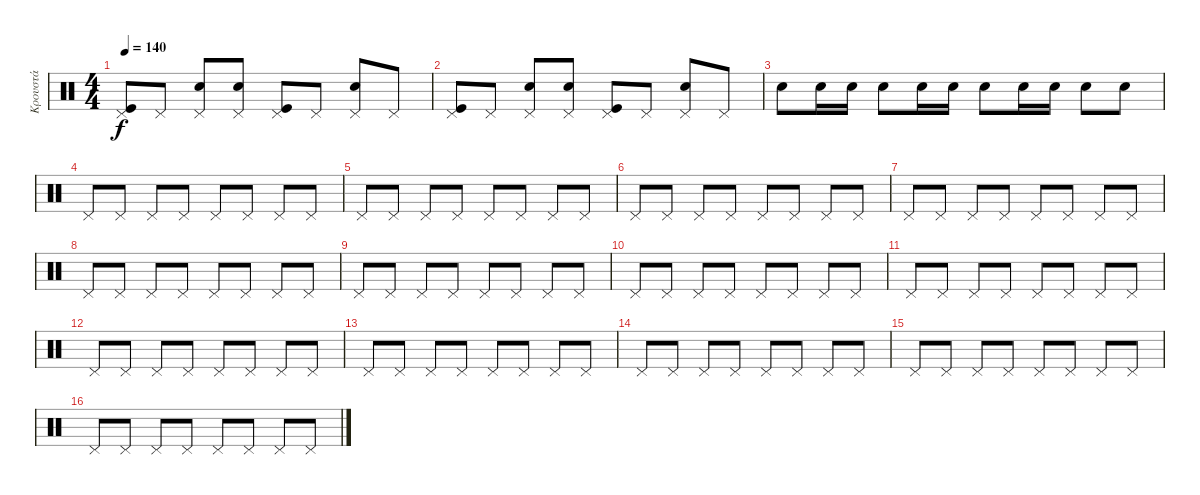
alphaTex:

\track ("Κρουστά" "Κρουστά") {instrument percussion}
\staff {score}
\articulation defaults
\ts (4 4)
\tempo 140
\clef neutral
\ks c
("Pedal Hi-Hat (hit)" "Kick (hit)").8{dy f} "Pedal Hi-Hat (hit)".8 ("Pedal Hi-Hat (hit)" "Snare (hit) 2").8 ("Pedal Hi-Hat (hit)" "Snare (hit) 2").8 ("Pedal Hi-Hat (hit)" "Kick (hit)").8 "Pedal Hi-Hat (hit)".8 ("Pedal Hi-Hat (hit)" "Snare (hit) 2").8 "Pedal Hi-Hat (hit)".8 |
("Pedal Hi-Hat (hit)" "Kick (hit)").8 "Pedal Hi-Hat (hit)".8 ("Pedal Hi-Hat (hit)" "Snare (hit) 2").8 ("Pedal Hi-Hat (hit)" "Snare (hit) 2").8 ("Pedal Hi-Hat (hit)" "Kick (hit)").8 "Pedal Hi-Hat (hit)".8 ("Pedal Hi-Hat (hit)" "Snare (hit) 2").8 "Pedal Hi-Hat (hit)".8 |
"Snare (hit) 2".8 "Snare (hit) 2".16 "Snare (hit) 2".16 "Snare (hit) 2".8 "Snare (hit) 2".16 "Snare (hit) 2".16 "Snare (hit) 2".8 "Snare (hit) 2".16 "Snare (hit) 2".16 "Snare (hit) 2".8 "Snare (hit) 2".8 |
"Pedal Hi-Hat (hit)".8 "Pedal Hi-Hat (hit)".8 "Pedal Hi-Hat (hit)".8 "Pedal Hi-Hat (hit)".8 "Pedal Hi-Hat (hit)".8 "Pedal Hi-Hat (hit)".8 "Pedal Hi-Hat (hit)".8 "Pedal Hi-Hat (hit)".8 |
"Pedal Hi-Hat (hit)".8 "Pedal Hi-Hat (hit)".8 "Pedal Hi-Hat (hit)".8 "Pedal Hi-Hat (hit)".8 "Pedal Hi-Hat (hit)".8 "Pedal Hi-Hat (hit)".8 "Pedal Hi-Hat (hit)".8 "Pedal Hi-Hat (hit)".8 |
"Pedal Hi-Hat (hit)".8 "Pedal Hi-Hat (hit)".8 "Pedal Hi-Hat (hit)".8 "Pedal Hi-Hat (hit)".8 "Pedal Hi-Hat (hit)".8 "Pedal Hi-Hat (hit)".8 "Pedal Hi-Hat (hit)".8 "Pedal Hi-Hat (hit)".8 |
"Pedal Hi-Hat (hit)".8 "Pedal Hi-Hat (hit)".8 "Pedal Hi-Hat (hit)".8 "Pedal Hi-Hat (hit)".8 "Pedal Hi-Hat (hit)".8 "Pedal Hi-Hat (hit)".8 "Pedal Hi-Hat (hit)".8 "Pedal Hi-Hat (hit)".8 |
"Pedal Hi-Hat (hit)".8 "Pedal Hi-Hat (hit)".8 "Pedal Hi-Hat (hit)".8 "Pedal Hi-Hat (hit)".8 "Pedal Hi-Hat (hit)".8 "Pedal Hi-Hat (hit)".8 "Pedal Hi-Hat (hit)".8 "Pedal Hi-Hat (hit)".8 |
"Pedal Hi-Hat (hit)".8 "Pedal Hi-Hat (hit)".8 "Pedal Hi-Hat (hit)".8 "Pedal Hi-Hat (hit)".8 "Pedal Hi-Hat (hit)".8 "Pedal Hi-Hat (hit)".8 "Pedal Hi-Hat (hit)".8 "Pedal Hi-Hat (hit)".8 |
"Pedal Hi-Hat (hit)".8 "Pedal Hi-Hat (hit)".8 "Pedal Hi-Hat (hit)".8 "Pedal Hi-Hat (hit)".8 "Pedal Hi-Hat (hit)".8 "Pedal Hi-Hat (hit)".8 "Pedal Hi-Hat (hit)".8 "Pedal Hi-Hat (hit)".8 |
"Pedal Hi-Hat (hit)".8 "Pedal Hi-Hat (hit)".8 "Pedal Hi-Hat (hit)".8 "Pedal Hi-Hat (hit)".8 "Pedal Hi-Hat (hit)".8 "Pedal Hi-Hat (hit)".8 "Pedal Hi-Hat (hit)".8 "Pedal Hi-Hat (hit)".8 |
"Pedal Hi-Hat (hit)".8 "Pedal Hi-Hat (hit)".8 "Pedal Hi-Hat (hit)".8 "Pedal Hi-Hat (hit)".8 "Pedal Hi-Hat (hit)".8 "Pedal Hi-Hat (hit)".8 "Pedal Hi-Hat (hit)".8 "Pedal Hi-Hat (hit)".8 |
"Pedal Hi-Hat (hit)".8 "Pedal Hi-Hat (hit)".8 "Pedal Hi-Hat (hit)".8 "Pedal Hi-Hat (hit)".8 "Pedal Hi-Hat (hit)".8 "Pedal Hi-Hat (hit)".8 "Pedal Hi-Hat (hit)".8 "Pedal Hi-Hat (hit)".8 |
"Pedal Hi-Hat (hit)".8 "Pedal Hi-Hat (hit)".8 "Pedal Hi-Hat (hit)".8 "Pedal Hi-Hat (hit)".8 "Pedal Hi-Hat (hit)".8 "Pedal Hi-Hat (hit)".8 "Pedal Hi-Hat (hit)".8 "Pedal Hi-Hat (hit)".8 |
"Pedal Hi-Hat (hit)".8 "Pedal Hi-Hat (hit)".8 "Pedal Hi-Hat (hit)".8 "Pedal Hi-Hat (hit)".8 "Pedal Hi-Hat (hit)".8 "Pedal Hi-Hat (hit)".8 "Pedal Hi-Hat (hit)".8 "Pedal Hi-Hat (hit)".8 |
"Pedal Hi-Hat (hit)".8 "Pedal Hi-Hat (hit)".8 "Pedal Hi-Hat (hit)".8 "Pedal Hi-Hat (hit)".8 "Pedal Hi-Hat (hit)".8 "Pedal Hi-Hat (hit)".8 "Pedal Hi-Hat (hit)".8 "Pedal Hi-Hat (hit)".8
